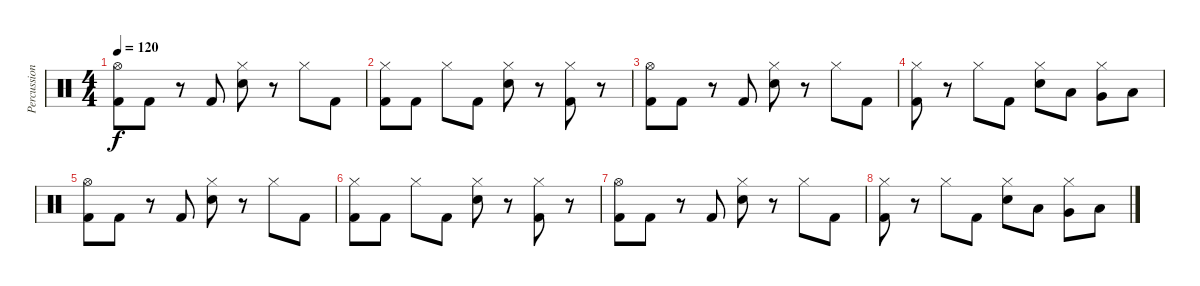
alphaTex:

\track ("Percussions" "Percussion") {instrument percussion}
\staff {score}
\articulation defaults
\ts (4 4)
\tempo 120
\clef neutral
\ks c
("Hi-Hat (open)" "Kick (hit) 2").8{dy f} "Kick (hit) 2".8 r.8 "Kick (hit) 2".8 ("Hi-Hat (closed)" "Snare (hit) 2").8 r.8 "Hi-Hat (closed)".8 "Kick (hit) 2".8 |
("Hi-Hat (closed)" "Kick (hit) 2").8 "Kick (hit) 2".8 "Hi-Hat (closed)".8 "Kick (hit) 2".8 ("Hi-Hat (closed)" "Snare (hit) 2").8 r.8 ("Hi-Hat (closed)" "Kick (hit) 2").8 r.8 |
("Hi-Hat (open)" "Kick (hit) 2").8 "Kick (hit) 2".8 r.8 "Kick (hit) 2".8 ("Hi-Hat (closed)" "Snare (hit) 2").8 r.8 "Hi-Hat (closed)".8 "Kick (hit) 2".8 |
("Hi-Hat (closed)" "Kick (hit) 2").8 r.8 "Hi-Hat (closed)".8 "Kick (hit) 2".8 ("Hi-Hat (closed)" "Snare (hit) 2").8 "Low Tom (hit)".8 ("Hi-Hat (closed)" "Very Low Tom (hit)").8 "Low Floor Tom (hit)".8 |
("Hi-Hat (open)" "Kick (hit) 2").8 "Kick (hit) 2".8 r.8 "Kick (hit) 2".8 ("Hi-Hat (closed)" "Snare (hit) 2").8 r.8 "Hi-Hat (closed)".8 "Kick (hit) 2".8 |
("Hi-Hat (closed)" "Kick (hit) 2").8 "Kick (hit) 2".8 "Hi-Hat (closed)".8 "Kick (hit) 2".8 ("Hi-Hat (closed)" "Snare (hit) 2").8 r.8 ("Hi-Hat (closed)" "Kick (hit) 2").8 r.8 |
("Hi-Hat (open)" "Kick (hit) 2").8 "Kick (hit) 2".8 r.8 "Kick (hit) 2".8 ("Hi-Hat (closed)" "Snare (hit) 2").8 r.8 "Hi-Hat (closed)".8 "Kick (hit) 2".8 |
("Hi-Hat (closed)" "Kick (hit) 2").8 r.8 "Hi-Hat (closed)".8 "Kick (hit) 2".8 ("Hi-Hat (closed)" "Snare (hit) 2").8 "Low Tom (hit)".8 ("Hi-Hat (closed)" "Very Low Tom (hit)").8 "Low Floor Tom (hit)".8
